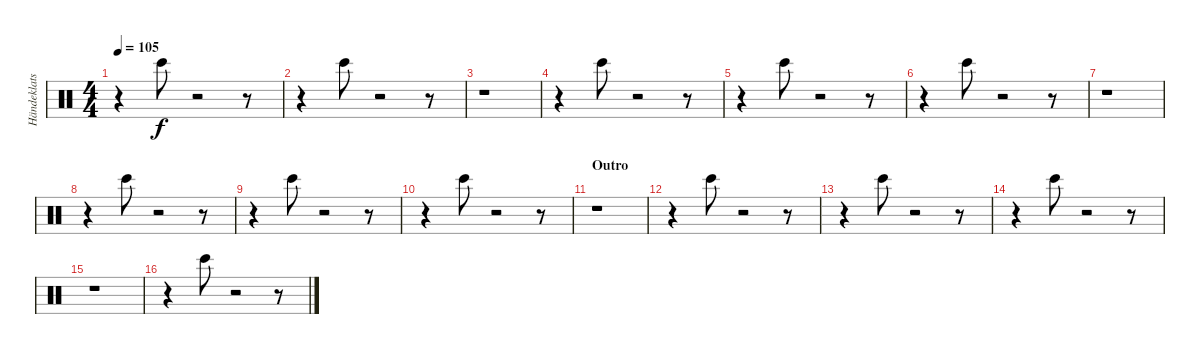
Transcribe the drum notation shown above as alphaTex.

\track ("Händeklatschen" "Händeklats") {instrument percussion}
\staff {score}
\articulation defaults
\ts (4 4)
\tempo 105
\clef neutral
\ks c
r.4{dy f} "Bongo High (hit)".8 r.2 r.8 |
r.4 "Bongo High (hit)".8 r.2 r.8 |
r.1 |
r.4 "Bongo High (hit)".8 r.2 r.8 |
r.4 "Bongo High (hit)".8 r.2 r.8 |
r.4 "Bongo High (hit)".8 r.2 r.8 |
r.1 |
r.4 "Bongo High (hit)".8 r.2 r.8 |
r.4 "Bongo High (hit)".8 r.2 r.8 |
r.4 "Bongo High (hit)".8 r.2 r.8 |
\section ("" "Outro")
r.1 |
r.4 "Bongo High (hit)".8 r.2 r.8 |
r.4 "Bongo High (hit)".8 r.2 r.8 |
r.4 "Bongo High (hit)".8 r.2 r.8 |
r.1 |
r.4 "Bongo High (hit)".8 r.2 r.8
